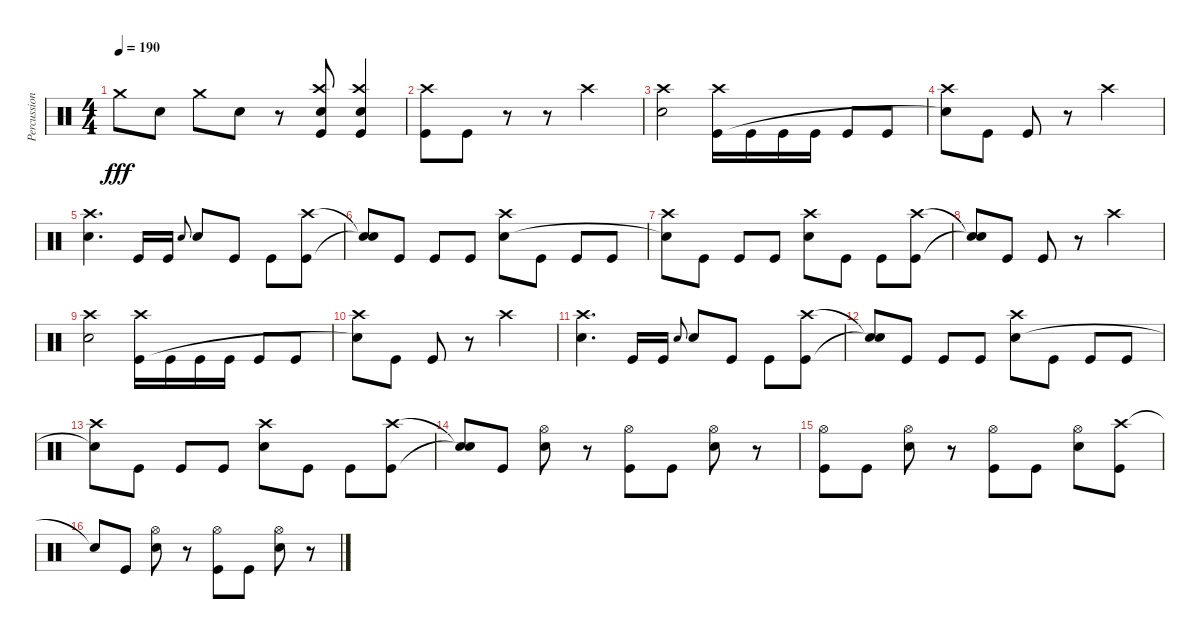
\track ("Percussion" "Percussion") {instrument percussion}
\staff {score}
\articulation defaults
\ts (4 4)
\tempo 190
\clef neutral
\ks c "Crash medium (hit)".8{dy fff} "Snare (hit) 2".8 "Crash medium (hit)".8 "Snare (hit) 2".8
r.8 ("Crash high (hit)" "Snare (hit) 2" "Kick (hit)").8 ("Crash high (hit)" "Snare (hit) 2" "Kick (hit)").4 |
("Kick (hit)" "Crash high (hit)").8 "Kick (hit)".8 r.8 r.8 "Crash high (hit)".2 |
("Crash high (hit)" "Snare (hit) 2").2 ("Crash high (hit)" "Kick (hit)").16 "Kick (hit)".16 "Kick (hit)".16 "Kick (hit)".16 "Kick (hit)".8 "Kick (hit)".8 |
("Crash high (hit)" "Snare (hit)"{t}).8 "Kick (hit)".8 "Kick (hit)".8 r.8 "Crash high (hit)".2 |
("Crash high (hit)" "Snare (hit) 2").4{d} "Kick (hit)".16 "Kick (hit)".16 "Snare (hit) 2".8{gr onbeat} "Snare (hit) 2".8 "Kick (hit)".8 "Kick (hit)".8 ("Crash high (hit)" "Kick (hit)").8 |
("Snare (hit)"{t} "Snare (hit)"{t}).8 "Kick (hit)".8 "Kick (hit)".8 "Kick (hit)".8 ("Crash high (hit)" "Snare (hit) 2").8 "Kick (hit)".8 "Kick (hit)".8 "Kick (hit)".8 |
("Crash high (hit)" "Snare (hit)"{t}).8 "Kick (hit)".8 "Kick (hit)".8 "Kick (hit)".8 ("Crash high (hit)" "Snare (hit) 2").8 "Kick (hit)".8 "Kick (hit)".8 ("Crash high (hit)" "Kick (hit)").8 |
("Snare (hit)"{t} "Snare (hit)"{t}).8 "Kick (hit)".8 "Kick (hit)".8 r.8 "Crash high (hit)".2 |
("Crash high (hit)" "Snare (hit) 2").2 ("Crash high (hit)" "Kick (hit)").16 "Kick (hit)".16 "Kick (hit)".16 "Kick (hit)".16 "Kick (hit)".8 "Kick (hit)".8 |
("Crash high (hit)" "Snare (hit)"{t}).8 "Kick (hit)".8 "Kick (hit)".8 r.8 "Crash high (hit)".2 |
("Crash high (hit)" "Snare (hit) 2").4{d} "Kick (hit)".16 "Kick (hit)".16 "Snare (hit) 2".8{gr onbeat} "Snare (hit) 2".8 "Kick (hit)".8 "Kick (hit)".8 ("Crash high (hit)" "Kick (hit)").8 |
("Snare (hit)"{t} "Snare (hit)"{t}).8 "Kick (hit)".8 "Kick (hit)".8 "Kick (hit)".8 ("Crash high (hit)" "Snare (hit) 2").8 "Kick (hit)".8 "Kick (hit)".8 "Kick (hit)".8 |
("Crash high (hit)" "Snare (hit)"{t}).8 "Kick (hit)".8 "Kick (hit)".8 "Kick (hit)".8 ("Crash high (hit)" "Snare (hit) 2").8 "Kick (hit)".8 "Kick (hit)".8 ("Crash high (hit)" "Kick (hit)").8 |
("Snare (hit)"{t} "Snare (hit)"{t}).8 "Kick (hit)".8 ("Hi-Hat (open)" "Snare (hit) 2").8 r.8 ("Hi-Hat (open)" "Kick (hit)").8 "Kick (hit)".8 ("Hi-Hat (open)" "Snare (hit) 2").8 r.8 |
("Hi-Hat (open)" "Kick (hit)").8 "Kick (hit)".8 ("Hi-Hat (open)" "Snare (hit) 2").8 r.8 ("Hi-Hat (open)" "Kick (hit)").8 "Kick (hit)".8 ("Hi-Hat (open)" "Snare (hit) 2").8 ("Crash high (hit)" "Kick (hit)").8 |
"Snare (hit)"{t}.8 "Kick (hit)".8 ("Hi-Hat (open)" "Snare (hit) 2").8 r.8 ("Hi-Hat (open)" "Kick (hit)").8 "Kick (hit)".8 ("Hi-Hat (open)" "Snare (hit) 2").8 r.8
